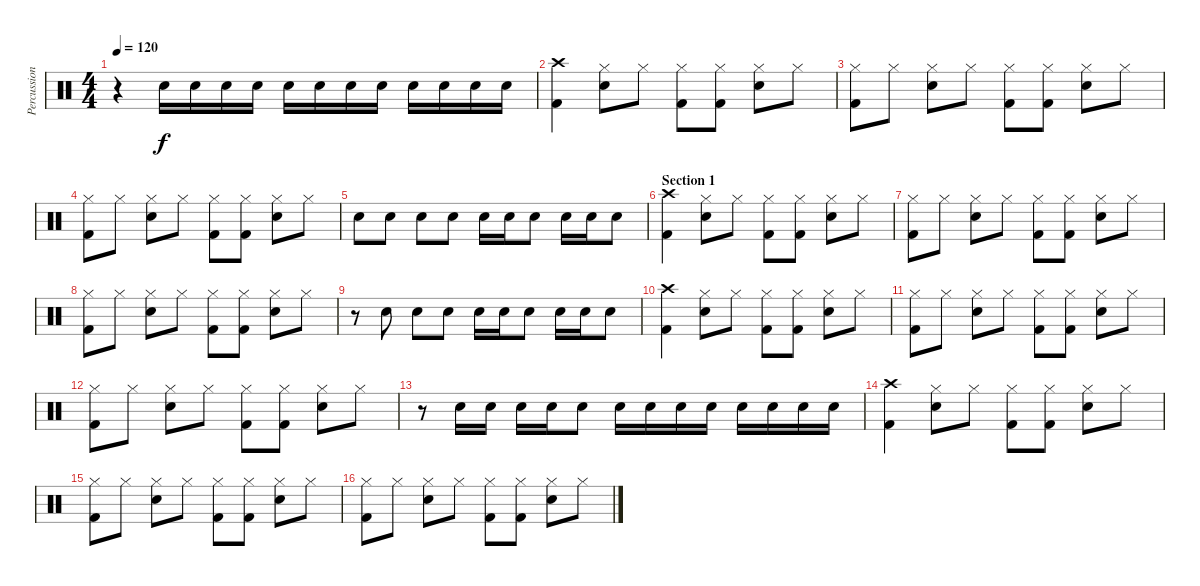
\track ("Percussions" "Percussion") {instrument percussion}
\staff {score}
\articulation defaults
\ts (4 4)
\tempo 120
\clef neutral
\ks c
r.4{dy f} "Snare (hit) 2".16 "Snare (hit) 2".16 "Snare (hit) 2".16 "Snare (hit) 2".16 "Snare (hit) 2".16 "Snare (hit) 2".16 "Snare (hit) 2".16 "Snare (hit) 2".16 "Snare (hit) 2".16 "Snare (hit) 2".16 "Snare (hit) 2".16 "Snare (hit) 2".16 |
("Crash high (hit)" "Kick (hit) 2").4 ("Hi-Hat (closed)" "Snare (hit) 2").8 "Hi-Hat (closed)".8 ("Hi-Hat (closed)" "Kick (hit) 2").8 ("Hi-Hat (closed)" "Kick (hit) 2").8 ("Hi-Hat (closed)" "Snare (hit) 2").8 "Hi-Hat (closed)".8 |
("Hi-Hat (closed)" "Kick (hit) 2").8 "Hi-Hat (closed)".8 ("Hi-Hat (closed)" "Snare (hit) 2").8 "Hi-Hat (closed)".8 ("Hi-Hat (closed)" "Kick (hit) 2").8 ("Hi-Hat (closed)" "Kick (hit) 2").8 ("Hi-Hat (closed)" "Snare (hit) 2").8 "Hi-Hat (closed)".8 |
("Hi-Hat (closed)" "Kick (hit) 2").8 "Hi-Hat (closed)".8 ("Hi-Hat (closed)" "Snare (hit) 2").8 "Hi-Hat (closed)".8 ("Hi-Hat (closed)" "Kick (hit) 2").8 ("Hi-Hat (closed)" "Kick (hit) 2").8 ("Hi-Hat (closed)" "Snare (hit) 2").8 "Hi-Hat (closed)".8 |
"Snare (hit) 2".8 "Snare (hit) 2".8 "Snare (hit) 2".8 "Snare (hit) 2".8 "Snare (hit) 2".16 "Snare (hit) 2".16 "Snare (hit) 2".8 "Snare (hit) 2".16 "Snare (hit) 2".16 "Snare (hit) 2".8 |
\section ("" "Section 1")
("Crash high (hit)" "Kick (hit) 2").4 ("Hi-Hat (closed)" "Snare (hit) 2").8 "Hi-Hat (closed)".8 ("Hi-Hat (closed)" "Kick (hit) 2").8 ("Hi-Hat (closed)" "Kick (hit) 2").8 ("Hi-Hat (closed)" "Snare (hit) 2").8 "Hi-Hat (closed)".8 |
("Hi-Hat (closed)" "Kick (hit) 2").8 "Hi-Hat (closed)".8 ("Hi-Hat (closed)" "Snare (hit) 2").8 "Hi-Hat (closed)".8 ("Hi-Hat (closed)" "Kick (hit) 2").8 ("Hi-Hat (closed)" "Kick (hit) 2").8 ("Hi-Hat (closed)" "Snare (hit) 2").8 "Hi-Hat (closed)".8 |
("Hi-Hat (closed)" "Kick (hit) 2").8 "Hi-Hat (closed)".8 ("Hi-Hat (closed)" "Snare (hit) 2").8 "Hi-Hat (closed)".8 ("Hi-Hat (closed)" "Kick (hit) 2").8 ("Hi-Hat (closed)" "Kick (hit) 2").8 ("Hi-Hat (closed)" "Snare (hit) 2").8 "Hi-Hat (closed)".8 |
r.8 "Snare (hit) 2".8 "Snare (hit) 2".8 "Snare (hit) 2".8 "Snare (hit) 2".16 "Snare (hit) 2".16 "Snare (hit) 2".8 "Snare (hit) 2".16 "Snare (hit) 2".16 "Snare (hit) 2".8 |
("Crash high (hit)" "Kick (hit) 2").4 ("Hi-Hat (closed)" "Snare (hit) 2").8 "Hi-Hat (closed)".8 ("Hi-Hat (closed)" "Kick (hit) 2").8 ("Hi-Hat (closed)" "Kick (hit) 2").8 ("Hi-Hat (closed)" "Snare (hit) 2").8 "Hi-Hat (closed)".8 |
("Hi-Hat (closed)" "Kick (hit) 2").8 "Hi-Hat (closed)".8 ("Hi-Hat (closed)" "Snare (hit) 2").8 "Hi-Hat (closed)".8 ("Hi-Hat (closed)" "Kick (hit) 2").8 ("Hi-Hat (closed)" "Kick (hit) 2").8 ("Hi-Hat (closed)" "Snare (hit) 2").8 "Hi-Hat (closed)".8 |
("Hi-Hat (closed)" "Kick (hit) 2").8 "Hi-Hat (closed)".8 ("Hi-Hat (closed)" "Snare (hit) 2").8 "Hi-Hat (closed)".8 ("Hi-Hat (closed)" "Kick (hit) 2").8 ("Hi-Hat (closed)" "Kick (hit) 2").8 ("Hi-Hat (closed)" "Snare (hit) 2").8 "Hi-Hat (closed)".8 |
r.8 "Snare (hit) 2".16 "Snare (hit) 2".16 "Snare (hit) 2".16 "Snare (hit) 2".16 "Snare (hit) 2".8 "Snare (hit) 2".16 "Snare (hit) 2".16 "Snare (hit) 2".16 "Snare (hit) 2".16 "Snare (hit) 2".16 "Snare (hit) 2".16 "Snare (hit) 2".16 "Snare (hit) 2".16 |
("Crash high (hit)" "Kick (hit) 2").4 ("Hi-Hat (closed)" "Snare (hit) 2").8 "Hi-Hat (closed)".8 ("Hi-Hat (closed)" "Kick (hit) 2").8 ("Hi-Hat (closed)" "Kick (hit) 2").8 ("Hi-Hat (closed)" "Snare (hit) 2").8 "Hi-Hat (closed)".8 |
("Hi-Hat (closed)" "Kick (hit) 2").8 "Hi-Hat (closed)".8 ("Hi-Hat (closed)" "Snare (hit) 2").8 "Hi-Hat (closed)".8 ("Hi-Hat (closed)" "Kick (hit) 2").8 ("Hi-Hat (closed)" "Kick (hit) 2").8 ("Hi-Hat (closed)" "Snare (hit) 2").8 "Hi-Hat (closed)".8 |
("Hi-Hat (closed)" "Kick (hit) 2").8 "Hi-Hat (closed)".8 ("Hi-Hat (closed)" "Snare (hit) 2").8 "Hi-Hat (closed)".8 ("Hi-Hat (closed)" "Kick (hit) 2").8 ("Hi-Hat (closed)" "Kick (hit) 2").8 ("Hi-Hat (closed)" "Snare (hit) 2").8 "Hi-Hat (closed)".8
